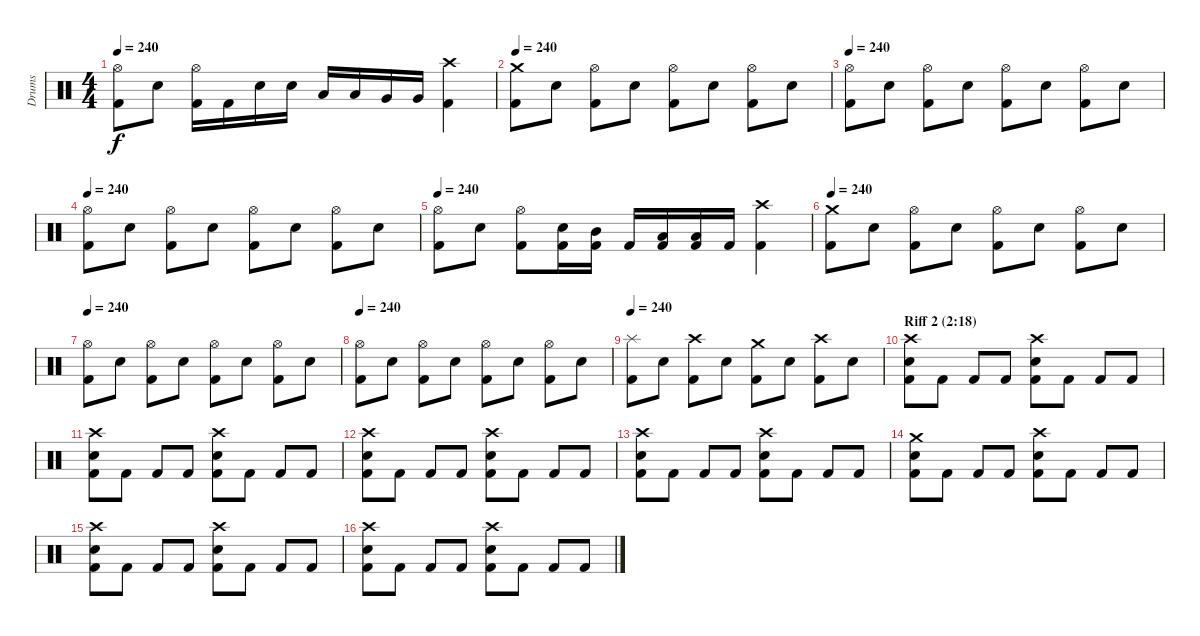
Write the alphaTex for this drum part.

\track ("Drums" "Drums") {instrument percussion}
\staff {score}
\articulation defaults
\ts (4 4)
\tempo 240
\clef neutral
\ks c
("Hi-Hat (open)" "Kick (hit) 2").8{dy f} "Electric Snare (hit)".8 ("Hi-Hat (open)" "Kick (hit) 2").16 "Kick (hit) 2".16 "Electric Snare (hit)".16 "Electric Snare (hit)".16 "Low Tom (hit)".16 "Low Tom (hit)".16 "Very Low Tom (hit)".16 "Very Low Tom (hit)".16 ("Crash high (hit)" "Kick (hit) 2").4 |
\tempo 240
("Crash medium (hit)" "Kick (hit) 2").8 "Electric Snare (hit)".8 ("Hi-Hat (open)" "Kick (hit) 2").8 "Electric Snare (hit)".8 ("Hi-Hat (open)" "Kick (hit) 2").8 "Electric Snare (hit)".8 ("Hi-Hat (open)" "Kick (hit) 2").8 "Electric Snare (hit)".8 |
\tempo 240
("Hi-Hat (open)" "Kick (hit) 2").8 "Electric Snare (hit)".8 ("Hi-Hat (open)" "Kick (hit) 2").8 "Electric Snare (hit)".8 ("Hi-Hat (open)" "Kick (hit) 2").8 "Electric Snare (hit)".8 ("Hi-Hat (open)" "Kick (hit) 2").8 "Electric Snare (hit)".8 |
\tempo 240
("Hi-Hat (open)" "Kick (hit) 2").8 "Electric Snare (hit)".8 ("Hi-Hat (open)" "Kick (hit) 2").8 "Electric Snare (hit)".8 ("Hi-Hat (open)" "Kick (hit) 2").8 "Electric Snare (hit)".8 ("Hi-Hat (open)" "Kick (hit) 2").8 "Electric Snare (hit)".8 |
\tempo 240
("Hi-Hat (open)" "Kick (hit) 2").8 "Electric Snare (hit)".8 ("Hi-Hat (open)" "Kick (hit) 2").8 ("Electric Snare (hit)" "Kick (hit) 2").16 ("Mid Tom (hit)" "Kick (hit) 2").16 "Kick (hit) 2".16 ("Low Tom (hit)" "Kick (hit) 2").16 ("Low Tom (hit)" "Kick (hit) 2").16 "Kick (hit) 2".16 ("Crash high (hit)" "Kick (hit) 2").4 |
\tempo 240
("Crash medium (hit)" "Kick (hit) 2").8 "Electric Snare (hit)".8 ("Hi-Hat (open)" "Kick (hit) 2").8 "Electric Snare (hit)".8 ("Hi-Hat (open)" "Kick (hit) 2").8 "Electric Snare (hit)".8 ("Hi-Hat (open)" "Kick (hit) 2").8 "Electric Snare (hit)".8 |
\tempo 240
("Hi-Hat (open)" "Kick (hit) 2").8 "Electric Snare (hit)".8 ("Hi-Hat (open)" "Kick (hit) 2").8 "Electric Snare (hit)".8 ("Hi-Hat (open)" "Kick (hit) 2").8 "Electric Snare (hit)".8 ("Hi-Hat (open)" "Kick (hit) 2").8 "Electric Snare (hit)".8 |
\tempo 240
("Hi-Hat (open)" "Kick (hit) 2").8 "Electric Snare (hit)".8 ("Hi-Hat (open)" "Kick (hit) 2").8 "Electric Snare (hit)".8 ("Hi-Hat (open)" "Kick (hit) 2").8 "Electric Snare (hit)".8 ("Hi-Hat (open)" "Kick (hit) 2").8 "Electric Snare (hit)".8 |
\tempo 240
("Splash (hit)" "Kick (hit) 2").8 "Electric Snare (hit)".8 ("Crash high (hit)" "Kick (hit) 2").8 "Electric Snare (hit)".8 ("Crash medium (hit)" "Kick (hit) 2").8 "Electric Snare (hit)".8 ("Crash high (hit)" "Kick (hit) 2").8 "Electric Snare (hit)".8 |
\section ("" "Riff 2 (2:18)")
("Crash high (hit)" "Electric Snare (hit)" "Kick (hit) 2").8 "Kick (hit) 2".8 "Kick (hit) 2".8 "Kick (hit) 2".8 ("Crash high (hit)" "Electric Snare (hit)" "Kick (hit) 2").8 "Kick (hit) 2".8 "Kick (hit) 2".8 "Kick (hit) 2".8 |
("Crash high (hit)" "Electric Snare (hit)" "Kick (hit) 2").8 "Kick (hit) 2".8 "Kick (hit) 2".8 "Kick (hit) 2".8 ("Crash high (hit)" "Electric Snare (hit)" "Kick (hit) 2").8 "Kick (hit) 2".8 "Kick (hit) 2".8 "Kick (hit) 2".8 |
("Crash high (hit)" "Electric Snare (hit)" "Kick (hit) 2").8 "Kick (hit) 2".8 "Kick (hit) 2".8 "Kick (hit) 2".8 ("Crash high (hit)" "Electric Snare (hit)" "Kick (hit) 2").8 "Kick (hit) 2".8 "Kick (hit) 2".8 "Kick (hit) 2".8 |
("Crash high (hit)" "Electric Snare (hit)" "Kick (hit) 2").8 "Kick (hit) 2".8 "Kick (hit) 2".8 "Kick (hit) 2".8 ("Crash high (hit)" "Electric Snare (hit)" "Kick (hit) 2").8 "Kick (hit) 2".8 "Kick (hit) 2".8 "Kick (hit) 2".8 |
("Crash medium (hit)" "Electric Snare (hit)" "Kick (hit) 2").8 "Kick (hit) 2".8 "Kick (hit) 2".8 "Kick (hit) 2".8 ("Crash high (hit)" "Electric Snare (hit)" "Kick (hit) 2").8 "Kick (hit) 2".8 "Kick (hit) 2".8 "Kick (hit) 2".8 |
("Crash high (hit)" "Electric Snare (hit)" "Kick (hit) 2").8 "Kick (hit) 2".8 "Kick (hit) 2".8 "Kick (hit) 2".8 ("Crash high (hit)" "Electric Snare (hit)" "Kick (hit) 2").8 "Kick (hit) 2".8 "Kick (hit) 2".8 "Kick (hit) 2".8 |
("Crash high (hit)" "Electric Snare (hit)" "Kick (hit) 2").8 "Kick (hit) 2".8 "Kick (hit) 2".8 "Kick (hit) 2".8 ("Crash high (hit)" "Electric Snare (hit)" "Kick (hit) 2").8 "Kick (hit) 2".8 "Kick (hit) 2".8 "Kick (hit) 2".8
